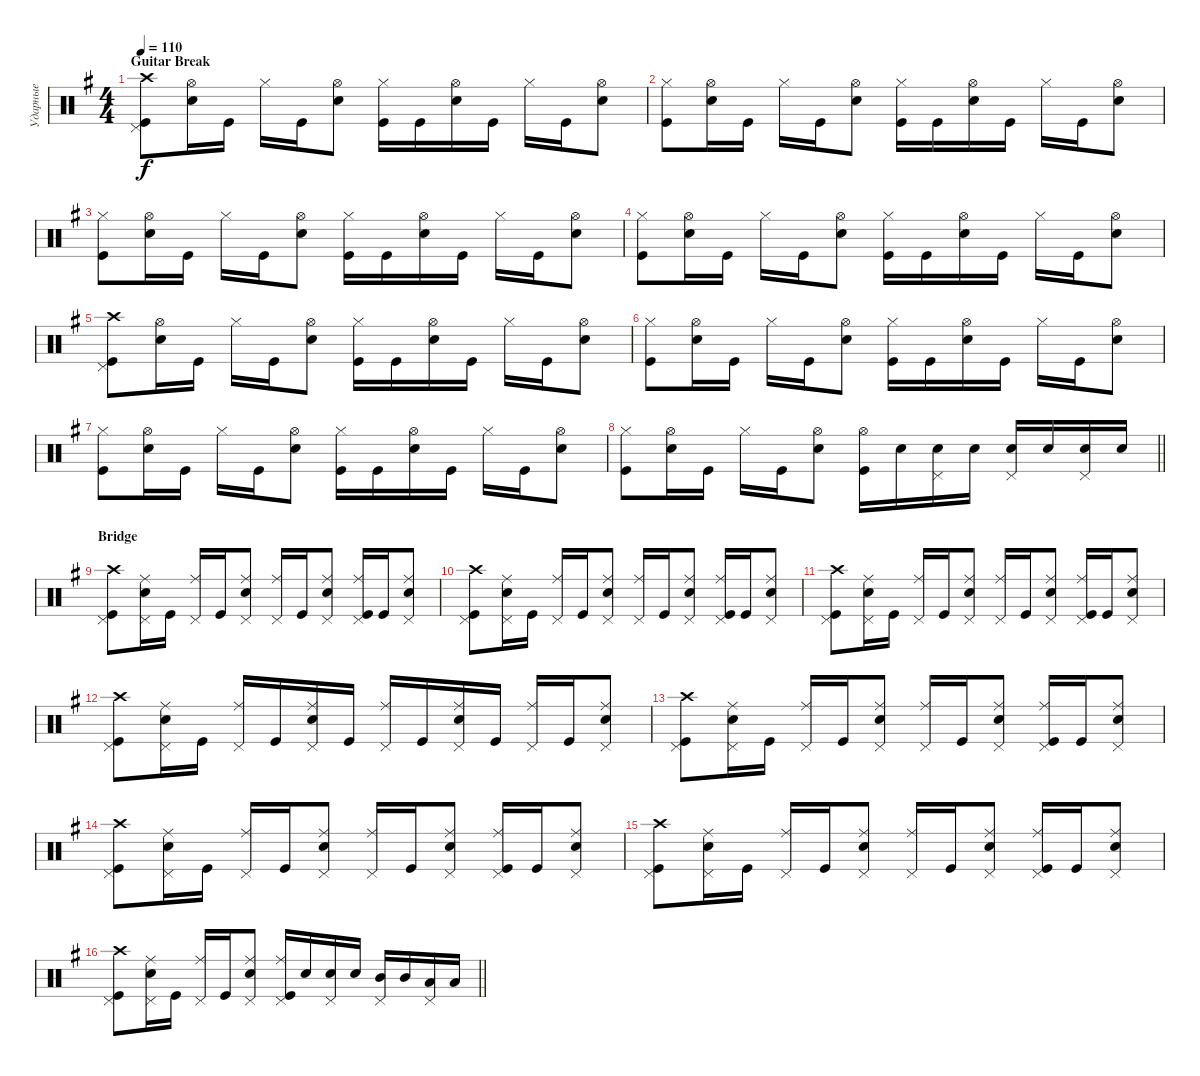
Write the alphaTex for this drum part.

\track ("Ударные" "Ударные") {instrument percussion}
\staff {score}
\articulation defaults
\ts (4 4)
\section ("" "Guitar Break")
\tempo 110
\clef neutral
\ks eminor
("Kick (hit)" "Pedal Hi-Hat (hit)" "Crash high (hit)").8{dy f} ("Snare (hit) 2" "Hi-Hat (open)").16 "Kick (hit)".16 "Hi-Hat (closed)".16 "Kick (hit)".16 ("Snare (hit) 2" "Hi-Hat (open)").8 ("Kick (hit)" "Hi-Hat (closed)").16 "Kick (hit)".16 ("Snare (hit) 2" "Hi-Hat (open)").16 "Kick (hit)".16 "Hi-Hat (closed)".16 "Kick (hit)".16 ("Snare (hit) 2" "Hi-Hat (open)").8 |
("Kick (hit)" "Hi-Hat (closed)").8 ("Snare (hit) 2" "Hi-Hat (open)").16 "Kick (hit)".16 "Hi-Hat (closed)".16 "Kick (hit)".16 ("Snare (hit) 2" "Hi-Hat (open)").8 ("Kick (hit)" "Hi-Hat (closed)").16 "Kick (hit)".16 ("Snare (hit) 2" "Hi-Hat (open)").16 "Kick (hit)".16 "Hi-Hat (closed)".16 "Kick (hit)".16 ("Snare (hit) 2" "Hi-Hat (open)").8 |
("Kick (hit)" "Hi-Hat (closed)").8 ("Snare (hit) 2" "Hi-Hat (open)").16 "Kick (hit)".16 "Hi-Hat (closed)".16 "Kick (hit)".16 ("Snare (hit) 2" "Hi-Hat (open)").8 ("Kick (hit)" "Hi-Hat (closed)").16 "Kick (hit)".16 ("Snare (hit) 2" "Hi-Hat (open)").16 "Kick (hit)".16 "Hi-Hat (closed)".16 "Kick (hit)".16 ("Snare (hit) 2" "Hi-Hat (open)").8 |
("Kick (hit)" "Hi-Hat (closed)").8 ("Snare (hit) 2" "Hi-Hat (open)").16 "Kick (hit)".16 "Hi-Hat (closed)".16 "Kick (hit)".16 ("Snare (hit) 2" "Hi-Hat (open)").8 ("Kick (hit)" "Hi-Hat (closed)").16 "Kick (hit)".16 ("Snare (hit) 2" "Hi-Hat (open)").16 "Kick (hit)".16 "Hi-Hat (closed)".16 "Kick (hit)".16 ("Snare (hit) 2" "Hi-Hat (open)").8 |
("Kick (hit)" "Pedal Hi-Hat (hit)" "Crash high (hit)").8 ("Snare (hit) 2" "Hi-Hat (open)").16 "Kick (hit)".16 "Hi-Hat (closed)".16 "Kick (hit)".16 ("Snare (hit) 2" "Hi-Hat (open)").8 ("Kick (hit)" "Hi-Hat (closed)").16 "Kick (hit)".16 ("Snare (hit) 2" "Hi-Hat (open)").16 "Kick (hit)".16 "Hi-Hat (closed)".16 "Kick (hit)".16 ("Snare (hit) 2" "Hi-Hat (open)").8 |
("Kick (hit)" "Hi-Hat (closed)").8 ("Snare (hit) 2" "Hi-Hat (open)").16 "Kick (hit)".16 "Hi-Hat (closed)".16 "Kick (hit)".16 ("Snare (hit) 2" "Hi-Hat (open)").8 ("Kick (hit)" "Hi-Hat (closed)").16 "Kick (hit)".16 ("Snare (hit) 2" "Hi-Hat (open)").16 "Kick (hit)".16 "Hi-Hat (closed)".16 "Kick (hit)".16 ("Snare (hit) 2" "Hi-Hat (open)").8 |
("Kick (hit)" "Hi-Hat (closed)").8 ("Snare (hit) 2" "Hi-Hat (open)").16 "Kick (hit)".16 "Hi-Hat (closed)".16 "Kick (hit)".16 ("Snare (hit) 2" "Hi-Hat (open)").8 ("Kick (hit)" "Hi-Hat (closed)").16 "Kick (hit)".16 ("Snare (hit) 2" "Hi-Hat (open)").16 "Kick (hit)".16 "Hi-Hat (closed)".16 "Kick (hit)".16 ("Snare (hit) 2" "Hi-Hat (open)").8 |
\barLineRight lightlight
("Kick (hit)" "Hi-Hat (closed)").8 ("Snare (hit) 2" "Hi-Hat (open)").16 "Kick (hit)".16 "Hi-Hat (closed)".16 "Kick (hit)".16 ("Snare (hit) 2" "Hi-Hat (open)").8 ("Kick (hit)" "Hi-Hat (open)").16 "Snare (hit) 2".16 ("Snare (hit) 2" "Pedal Hi-Hat (hit)").16 "Snare (hit) 2".16 ("Snare (hit) 2" "Pedal Hi-Hat (hit)").16 "Snare (hit) 2".16 ("Snare (hit) 2" "Pedal Hi-Hat (hit)").16 "Snare (hit) 2".16 |
\section ("" "Bridge")
("Kick (hit)" "Crash high (hit)" "Pedal Hi-Hat (hit)").8 ("Snare (hit) 2" "Ride (middle)" "Pedal Hi-Hat (hit)").16 "Kick (hit)".16 ("Ride (middle)" "Pedal Hi-Hat (hit)").16 "Kick (hit)".16 ("Snare (hit) 2" "Ride (middle)" "Pedal Hi-Hat (hit)").8 ("Ride (middle)" "Pedal Hi-Hat (hit)").16 "Kick (hit)".16 ("Snare (hit) 2" "Ride (middle)" "Pedal Hi-Hat (hit)").8 ("Kick (hit)" "Ride (middle)" "Pedal Hi-Hat (hit)").16 "Kick (hit)".16 ("Snare (hit) 2" "Ride (middle)" "Pedal Hi-Hat (hit)").8 |
("Kick (hit)" "Crash high (hit)" "Pedal Hi-Hat (hit)").8 ("Snare (hit) 2" "Ride (middle)" "Pedal Hi-Hat (hit)").16 "Kick (hit)".16 ("Ride (middle)" "Pedal Hi-Hat (hit)").16 "Kick (hit)".16 ("Snare (hit) 2" "Ride (middle)" "Pedal Hi-Hat (hit)").8 ("Ride (middle)" "Pedal Hi-Hat (hit)").16 "Kick (hit)".16 ("Snare (hit) 2" "Ride (middle)" "Pedal Hi-Hat (hit)").8 ("Kick (hit)" "Ride (middle)" "Pedal Hi-Hat (hit)").16 "Kick (hit)".16 ("Snare (hit) 2" "Ride (middle)" "Pedal Hi-Hat (hit)").8 |
("Kick (hit)" "Crash high (hit)" "Pedal Hi-Hat (hit)").8 ("Snare (hit) 2" "Ride (middle)" "Pedal Hi-Hat (hit)").16 "Kick (hit)".16 ("Ride (middle)" "Pedal Hi-Hat (hit)").16 "Kick (hit)".16 ("Snare (hit) 2" "Ride (middle)" "Pedal Hi-Hat (hit)").8 ("Ride (middle)" "Pedal Hi-Hat (hit)").16 "Kick (hit)".16 ("Snare (hit) 2" "Ride (middle)" "Pedal Hi-Hat (hit)").8 ("Kick (hit)" "Ride (middle)" "Pedal Hi-Hat (hit)").16 "Kick (hit)".16 ("Snare (hit) 2" "Ride (middle)" "Pedal Hi-Hat (hit)").8 |
("Kick (hit)" "Crash high (hit)" "Pedal Hi-Hat (hit)").8 ("Snare (hit) 2" "Ride (middle)" "Pedal Hi-Hat (hit)").16 "Kick (hit)".16 ("Ride (middle)" "Pedal Hi-Hat (hit)").16 "Kick (hit)".16 ("Snare (hit) 2" "Ride (middle)" "Pedal Hi-Hat (hit)").16 "Kick (hit)".16 ("Ride (middle)" "Pedal Hi-Hat (hit)").16 "Kick (hit)".16 ("Snare (hit) 2" "Ride (middle)" "Pedal Hi-Hat (hit)").16 "Kick (hit)".16 ("Pedal Hi-Hat (hit)" "Ride (middle)").16 "Kick (hit)".16 ("Snare (hit) 2" "Ride (middle)" "Pedal Hi-Hat (hit)").8 |
("Kick (hit)" "Crash high (hit)" "Pedal Hi-Hat (hit)").8 ("Snare (hit) 2" "Ride (middle)" "Pedal Hi-Hat (hit)").16 "Kick (hit)".16 ("Ride (middle)" "Pedal Hi-Hat (hit)").16 "Kick (hit)".16 ("Snare (hit) 2" "Ride (middle)" "Pedal Hi-Hat (hit)").8 ("Ride (middle)" "Pedal Hi-Hat (hit)").16 "Kick (hit)".16 ("Snare (hit) 2" "Ride (middle)" "Pedal Hi-Hat (hit)").8 ("Kick (hit)" "Ride (middle)" "Pedal Hi-Hat (hit)").16 "Kick (hit)".16 ("Snare (hit) 2" "Ride (middle)" "Pedal Hi-Hat (hit)").8 |
("Kick (hit)" "Crash high (hit)" "Pedal Hi-Hat (hit)").8 ("Snare (hit) 2" "Ride (middle)" "Pedal Hi-Hat (hit)").16 "Kick (hit)".16 ("Ride (middle)" "Pedal Hi-Hat (hit)").16 "Kick (hit)".16 ("Snare (hit) 2" "Ride (middle)" "Pedal Hi-Hat (hit)").8 ("Ride (middle)" "Pedal Hi-Hat (hit)").16 "Kick (hit)".16 ("Snare (hit) 2" "Ride (middle)" "Pedal Hi-Hat (hit)").8 ("Kick (hit)" "Ride (middle)" "Pedal Hi-Hat (hit)").16 "Kick (hit)".16 ("Snare (hit) 2" "Ride (middle)" "Pedal Hi-Hat (hit)").8 |
("Kick (hit)" "Crash high (hit)" "Pedal Hi-Hat (hit)").8 ("Snare (hit) 2" "Ride (middle)" "Pedal Hi-Hat (hit)").16 "Kick (hit)".16 ("Ride (middle)" "Pedal Hi-Hat (hit)").16 "Kick (hit)".16 ("Snare (hit) 2" "Ride (middle)" "Pedal Hi-Hat (hit)").8 ("Ride (middle)" "Pedal Hi-Hat (hit)").16 "Kick (hit)".16 ("Snare (hit) 2" "Ride (middle)" "Pedal Hi-Hat (hit)").8 ("Kick (hit)" "Ride (middle)" "Pedal Hi-Hat (hit)").16 "Kick (hit)".16 ("Snare (hit) 2" "Ride (middle)" "Pedal Hi-Hat (hit)").8 |
\barLineRight lightlight
("Kick (hit)" "Crash high (hit)" "Pedal Hi-Hat (hit)").8 ("Snare (hit) 2" "Ride (middle)" "Pedal Hi-Hat (hit)").16 "Kick (hit)".16 ("Ride (middle)" "Pedal Hi-Hat (hit)").16 "Kick (hit)".16 ("Snare (hit) 2" "Ride (middle)" "Pedal Hi-Hat (hit)").8 ("Kick (hit)" "Ride (middle)" "Pedal Hi-Hat (hit)").16 "Snare (hit) 2".16 ("Snare (hit) 2" "Pedal Hi-Hat (hit)").16 "Snare (hit) 2".16 ("Mid Tom (hit)" "Pedal Hi-Hat (hit)").16 "Mid Tom (hit)".16 ("Low Tom (hit)" "Pedal Hi-Hat (hit)").16 "Low Tom (hit)".16
